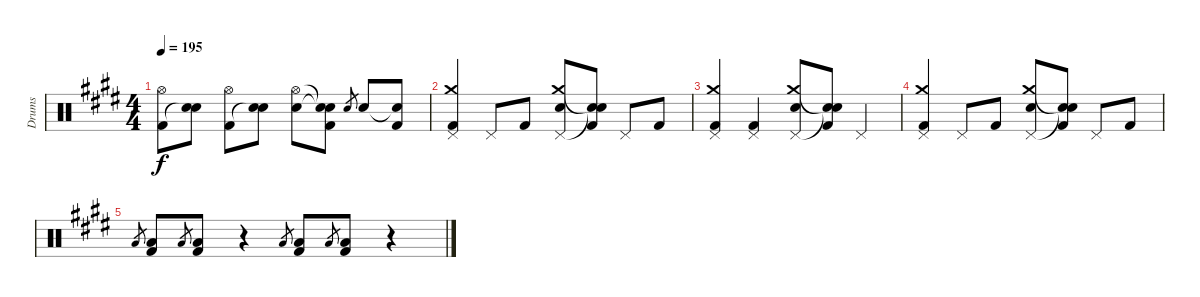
\track ("Drums" "Drums") {instrument percussion}
\staff {score}
\articulation defaults
\ts (4 4)
\tempo 195
\clef neutral
\ks e
("Hi-Hat (open)" "Kick (hit) 2").8{dy f} ("Electric Snare (hit)" "Snare (hit)"{t}).8 ("Hi-Hat (open)" "Kick (hit) 2").8 ("Electric Snare (hit)" "Snare (hit)"{t}).8 ("Hi-Hat (open)" "Electric Snare (hit)").8 ("Snare (hit)"{t} "Electric Snare (hit)"{t} "Kick (hit) 2").8 "Electric Snare (hit)".8{gr} "Electric Snare (hit)".8 ("Electric Snare (hit)"{t} "Kick (hit) 2").8 |
("Crash medium (hit)" "Pedal Hi-Hat (hit)" "Kick (hit) 2").4 "Pedal Hi-Hat (hit)".8 "Kick (hit) 2".8 ("Crash medium (hit)" "Pedal Hi-Hat (hit)" "Electric Snare (hit)").8 ("Snare (hit)"{t} "Snare (hit)"{t} "Kick (hit) 2").8 "Pedal Hi-Hat (hit)".8 "Kick (hit) 2".8 |
("Crash medium (hit)" "Pedal Hi-Hat (hit)" "Kick (hit) 2").4 ("Pedal Hi-Hat (hit)" "Kick (hit) 2").4 ("Crash medium (hit)" "Pedal Hi-Hat (hit)" "Electric Snare (hit)").8 ("Snare (hit)"{t} "Snare (hit)"{t} "Kick (hit) 2").8 "Pedal Hi-Hat (hit)".4 |
("Crash medium (hit)" "Pedal Hi-Hat (hit)" "Kick (hit) 2").4 "Pedal Hi-Hat (hit)".8 "Kick (hit) 2".8 ("Crash medium (hit)" "Pedal Hi-Hat (hit)" "Electric Snare (hit)").8 ("Snare (hit)"{t} "Snare (hit)"{t} "Kick (hit) 2").8 "Pedal Hi-Hat (hit)".8 "Kick (hit) 2".8 |
"Low Floor Tom (hit)".8{gr} ("Low Floor Tom (hit)" "Kick (hit) 2").8 "Low Floor Tom (hit)".8{gr} ("Low Floor Tom (hit)" "Kick (hit) 2").8 r.4 "Low Floor Tom (hit)".8{gr} ("Low Floor Tom (hit)" "Kick (hit) 2").8 "Low Floor Tom (hit)".8{gr} ("Low Floor Tom (hit)" "Kick (hit) 2").8 r.4
